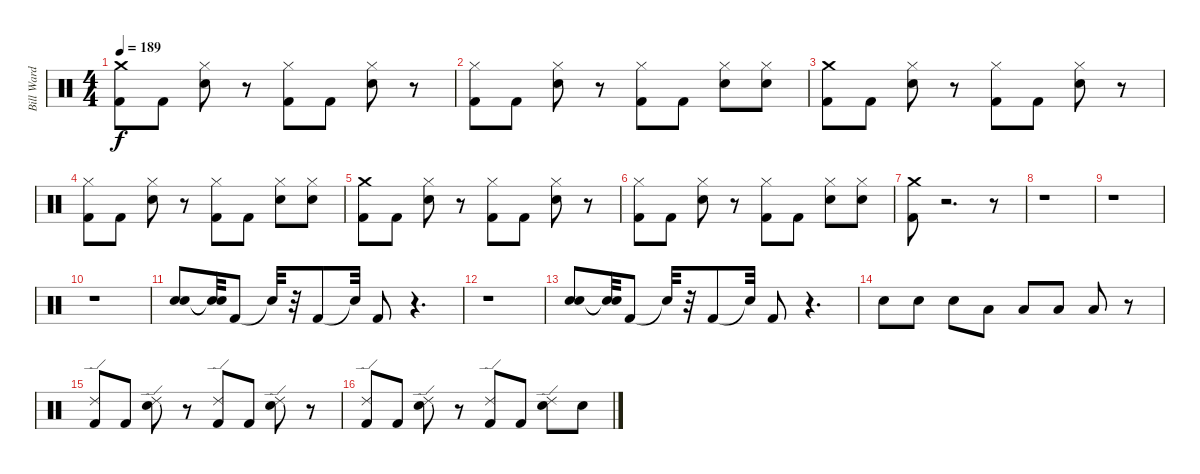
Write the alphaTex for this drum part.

\track ("Bill Ward" "Bill Ward") {instrument percussion}
\staff {score}
\articulation defaults
\ts (4 4)
\tempo 189
\clef neutral
\ks c
("Crash medium (hit)" "Kick (hit) 2").8{dy f} "Kick (hit) 2".8 ("Hi-Hat (closed)" "Electric Snare (hit)").8 r.8 ("Hi-Hat (closed)" "Kick (hit) 2").8 "Kick (hit) 2".8 ("Electric Snare (hit)" "Hi-Hat (closed)").8 r.8 |
("Hi-Hat (closed)" "Kick (hit) 2").8 "Kick (hit) 2".8 ("Hi-Hat (closed)" "Electric Snare (hit)").8 r.8 ("Hi-Hat (closed)" "Kick (hit) 2").8 "Kick (hit) 2".8 ("Hi-Hat (closed)" "Electric Snare (hit)").8 ("Hi-Hat (closed)" "Electric Snare (hit)").8 |
("Kick (hit) 2" "Crash medium (hit)").8 "Kick (hit) 2".8 ("Hi-Hat (closed)" "Electric Snare (hit)").8 r.8 ("Hi-Hat (closed)" "Kick (hit) 2").8 "Kick (hit) 2".8 ("Hi-Hat (closed)" "Electric Snare (hit)").8 r.8 |
("Kick (hit) 2" "Hi-Hat (closed)").8 "Kick (hit) 2".8 ("Electric Snare (hit)" "Hi-Hat (closed)").8 r.8 ("Hi-Hat (closed)" "Kick (hit) 2").8 "Kick (hit) 2".8 ("Hi-Hat (closed)" "Electric Snare (hit)").8 ("Hi-Hat (closed)" "Electric Snare (hit)").8 |
("Kick (hit) 2" "Crash medium (hit)").8 "Kick (hit) 2".8 ("Electric Snare (hit)" "Hi-Hat (closed)").8 r.8 ("Kick (hit) 2" "Hi-Hat (closed)").8 "Kick (hit) 2".8 ("Hi-Hat (closed)" "Electric Snare (hit)").8 r.8 |
("Hi-Hat (closed)" "Kick (hit) 2").8 "Kick (hit) 2".8 ("Hi-Hat (closed)" "Electric Snare (hit)").8 r.8 ("Hi-Hat (closed)" "Kick (hit) 2").8 "Kick (hit) 2".8 ("Hi-Hat (closed)" "Electric Snare (hit)").8 ("Electric Snare (hit)" "Hi-Hat (closed)").8 |
("Crash medium (hit)" "Kick (hit) 2").8 r.2{d} r.8 |
r.1 |
r.1 |
r.1 |
("Electric Snare (hit)" "Electric Snare (hit)").8 ("Snare (hit)"{t} "Snare (hit)"{t}).32 "Kick (hit) 2".8 "Snare (hit)"{t}.32 r.32 "Kick (hit) 2".8 "Snare (hit)"{t}.32 "Kick (hit) 2".8 r.4{d} |
r.1 |
("Electric Snare (hit)" "Electric Snare (hit)").8 ("Snare (hit)"{t} "Snare (hit)"{t}).32 "Kick (hit) 2".8 "Snare (hit)"{t}.32 r.32 "Kick (hit) 2".8 "Snare (hit)"{t}.32 "Kick (hit) 2".8 r.4{d} |
"Electric Snare (hit)".8 "Electric Snare (hit)".8 "Electric Snare (hit)".8 "Low Tom (hit)".8 "Low Tom (hit)".8 "Low Tom (hit)".8 "Low Tom (hit)".8 r.8 |
("Kick (hit) 2" "Ride (edge) 2").8 "Kick (hit) 2".8 ("Ride (edge) 2" "Electric Snare (hit)").8 r.8 ("Ride (edge) 2" "Kick (hit) 2").8 "Kick (hit) 2".8 ("Ride (edge) 2" "Electric Snare (hit)").8 r.8 |
("Ride (edge) 2" "Kick (hit) 2").8 "Kick (hit) 2".8 ("Electric Snare (hit)" "Ride (edge) 2").8 r.8 ("Ride (edge) 2" "Kick (hit) 2").8 "Kick (hit) 2".8 ("Ride (edge) 2" "Electric Snare (hit)").8 "Electric Snare (hit)".8
